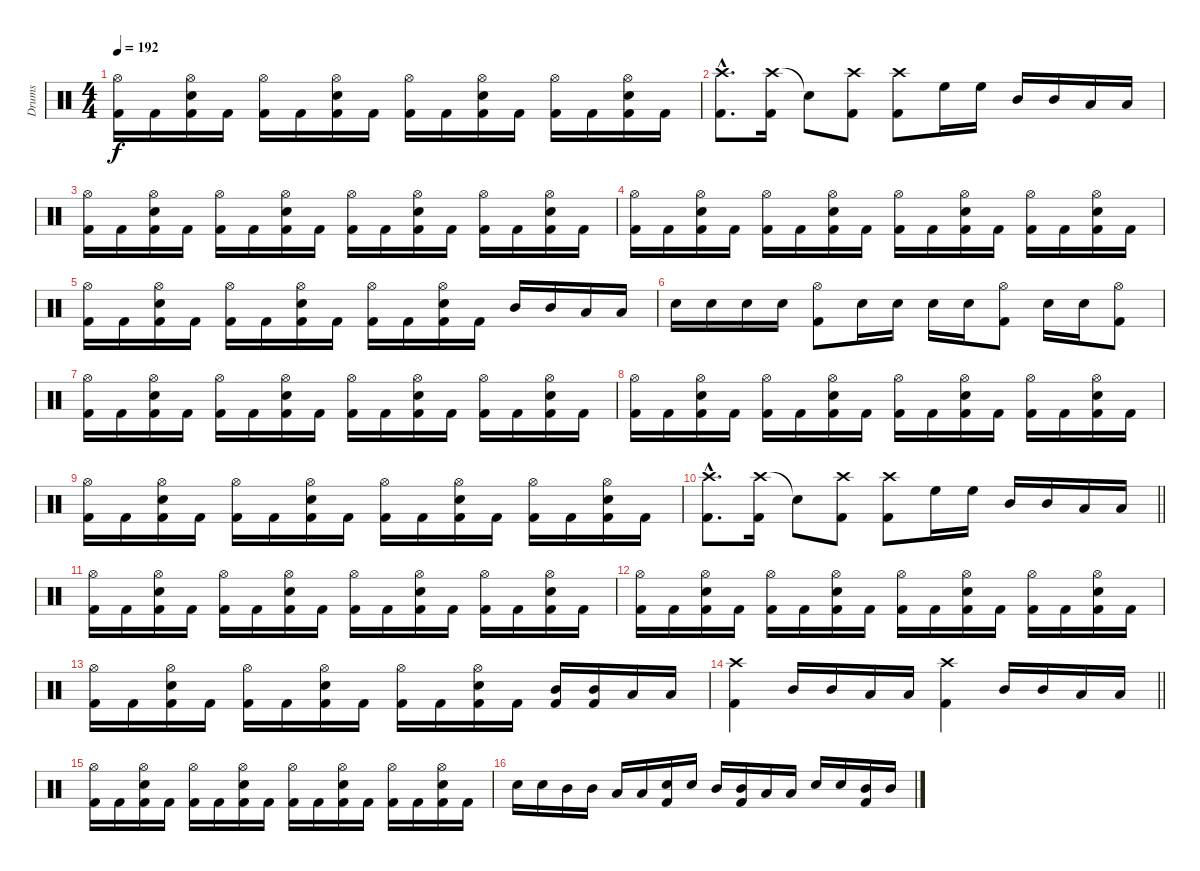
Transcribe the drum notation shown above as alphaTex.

\track ("Drums" "Drums") {instrument percussion}
\staff {score}
\articulation defaults
\ts (4 4)
\tempo 192
\clef neutral
\ks c
("Hi-Hat (open)" "Kick (hit) 2").16{dy f} "Kick (hit) 2".16 ("Hi-Hat (open)" "Snare (hit) 2" "Kick (hit) 2").16 "Kick (hit) 2".16 ("Hi-Hat (open)" "Kick (hit) 2").16 "Kick (hit) 2".16 ("Hi-Hat (open)" "Snare (hit) 2" "Kick (hit) 2").16 "Kick (hit) 2".16 ("Hi-Hat (open)" "Kick (hit) 2").16 "Kick (hit) 2".16 ("Hi-Hat (open)" "Snare (hit) 2" "Kick (hit) 2").16 "Kick (hit) 2".16 ("Hi-Hat (open)" "Kick (hit) 2").16 "Kick (hit) 2".16 ("Hi-Hat (open)" "Snare (hit) 2" "Kick (hit) 2").16 "Kick (hit) 2".16 |
("Crash high (hit)"{hac} "Kick (hit) 2"{hac}).8{d} ("Crash high (hit)" "Kick (hit) 2").16 "Snare (hit)"{t}.8 ("Crash high (hit)" "Kick (hit) 2").8 ("Crash high (hit)" "Kick (hit) 2").8 "High Floor Tom (hit)".16 "High Floor Tom (hit)".16 "Mid Tom (hit)".16 "Mid Tom (hit)".16 "Low Floor Tom (hit)".16 "Low Floor Tom (hit)".16 |
("Hi-Hat (open)" "Kick (hit) 2").16 "Kick (hit) 2".16 ("Hi-Hat (open)" "Snare (hit) 2" "Kick (hit) 2").16 "Kick (hit) 2".16 ("Hi-Hat (open)" "Kick (hit) 2").16 "Kick (hit) 2".16 ("Hi-Hat (open)" "Snare (hit) 2" "Kick (hit) 2").16 "Kick (hit) 2".16 ("Hi-Hat (open)" "Kick (hit) 2").16 "Kick (hit) 2".16 ("Hi-Hat (open)" "Snare (hit) 2" "Kick (hit) 2").16 "Kick (hit) 2".16 ("Hi-Hat (open)" "Kick (hit) 2").16 "Kick (hit) 2".16 ("Hi-Hat (open)" "Snare (hit) 2" "Kick (hit) 2").16 "Kick (hit) 2".16 |
("Hi-Hat (open)" "Kick (hit) 2").16 "Kick (hit) 2".16 ("Hi-Hat (open)" "Snare (hit) 2" "Kick (hit) 2").16 "Kick (hit) 2".16 ("Hi-Hat (open)" "Kick (hit) 2").16 "Kick (hit) 2".16 ("Hi-Hat (open)" "Snare (hit) 2" "Kick (hit) 2").16 "Kick (hit) 2".16 ("Hi-Hat (open)" "Kick (hit) 2").16 "Kick (hit) 2".16 ("Hi-Hat (open)" "Snare (hit) 2" "Kick (hit) 2").16 "Kick (hit) 2".16 ("Hi-Hat (open)" "Kick (hit) 2").16 "Kick (hit) 2".16 ("Hi-Hat (open)" "Snare (hit) 2" "Kick (hit) 2").16 "Kick (hit) 2".16 |
("Hi-Hat (open)" "Kick (hit) 2").16 "Kick (hit) 2".16 ("Hi-Hat (open)" "Snare (hit) 2" "Kick (hit) 2").16 "Kick (hit) 2".16 ("Hi-Hat (open)" "Kick (hit) 2").16 "Kick (hit) 2".16 ("Hi-Hat (open)" "Snare (hit) 2" "Kick (hit) 2").16 "Kick (hit) 2".16 ("Hi-Hat (open)" "Kick (hit) 2").16 "Kick (hit) 2".16 ("Hi-Hat (open)" "Snare (hit) 2" "Kick (hit) 2").16 "Kick (hit) 2".16 "Mid Tom (hit)".16 "Mid Tom (hit)".16 "Low Floor Tom (hit)".16 "Low Floor Tom (hit)".16 |
"Snare (hit) 2".16 "Snare (hit) 2".16 "Snare (hit) 2".16 "Snare (hit) 2".16 ("Hi-Hat (open)" "Kick (hit) 2").8 "Snare (hit) 2".16 "Snare (hit) 2".16 "Snare (hit) 2".16 "Snare (hit) 2".16 ("Hi-Hat (open)" "Kick (hit) 2").8 "Snare (hit) 2".16 "Snare (hit) 2".16 ("Hi-Hat (open)" "Kick (hit) 2").8 |
("Hi-Hat (open)" "Kick (hit) 2").16 "Kick (hit) 2".16 ("Hi-Hat (open)" "Snare (hit) 2" "Kick (hit) 2").16 "Kick (hit) 2".16 ("Hi-Hat (open)" "Kick (hit) 2").16 "Kick (hit) 2".16 ("Hi-Hat (open)" "Snare (hit) 2" "Kick (hit) 2").16 "Kick (hit) 2".16 ("Hi-Hat (open)" "Kick (hit) 2").16 "Kick (hit) 2".16 ("Hi-Hat (open)" "Snare (hit) 2" "Kick (hit) 2").16 "Kick (hit) 2".16 ("Hi-Hat (open)" "Kick (hit) 2").16 "Kick (hit) 2".16 ("Hi-Hat (open)" "Snare (hit) 2" "Kick (hit) 2").16 "Kick (hit) 2".16 |
("Hi-Hat (open)" "Kick (hit) 2").16 "Kick (hit) 2".16 ("Hi-Hat (open)" "Snare (hit) 2" "Kick (hit) 2").16 "Kick (hit) 2".16 ("Hi-Hat (open)" "Kick (hit) 2").16 "Kick (hit) 2".16 ("Hi-Hat (open)" "Snare (hit) 2" "Kick (hit) 2").16 "Kick (hit) 2".16 ("Hi-Hat (open)" "Kick (hit) 2").16 "Kick (hit) 2".16 ("Hi-Hat (open)" "Snare (hit) 2" "Kick (hit) 2").16 "Kick (hit) 2".16 ("Hi-Hat (open)" "Kick (hit) 2").16 "Kick (hit) 2".16 ("Hi-Hat (open)" "Snare (hit) 2" "Kick (hit) 2").16 "Kick (hit) 2".16 |
("Hi-Hat (open)" "Kick (hit) 2").16 "Kick (hit) 2".16 ("Hi-Hat (open)" "Snare (hit) 2" "Kick (hit) 2").16 "Kick (hit) 2".16 ("Hi-Hat (open)" "Kick (hit) 2").16 "Kick (hit) 2".16 ("Hi-Hat (open)" "Snare (hit) 2" "Kick (hit) 2").16 "Kick (hit) 2".16 ("Hi-Hat (open)" "Kick (hit) 2").16 "Kick (hit) 2".16 ("Hi-Hat (open)" "Snare (hit) 2" "Kick (hit) 2").16 "Kick (hit) 2".16 ("Hi-Hat (open)" "Kick (hit) 2").16 "Kick (hit) 2".16 ("Hi-Hat (open)" "Snare (hit) 2" "Kick (hit) 2").16 "Kick (hit) 2".16 |
\barLineRight lightlight
("Crash high (hit)"{hac} "Kick (hit) 2"{hac}).8{d} ("Crash high (hit)" "Kick (hit) 2").16 "Snare (hit)"{t}.8 ("Crash high (hit)" "Kick (hit) 2").8 ("Crash high (hit)" "Kick (hit) 2").8 "High Floor Tom (hit)".16 "High Floor Tom (hit)".16 "Mid Tom (hit)".16 "Mid Tom (hit)".16 "Low Floor Tom (hit)".16 "Low Floor Tom (hit)".16 |
("Hi-Hat (open)" "Kick (hit) 2").16 "Kick (hit) 2".16 ("Hi-Hat (open)" "Snare (hit) 2" "Kick (hit) 2").16 "Kick (hit) 2".16 ("Hi-Hat (open)" "Kick (hit) 2").16 "Kick (hit) 2".16 ("Hi-Hat (open)" "Snare (hit) 2" "Kick (hit) 2").16 "Kick (hit) 2".16 ("Hi-Hat (open)" "Kick (hit) 2").16 "Kick (hit) 2".16 ("Hi-Hat (open)" "Snare (hit) 2" "Kick (hit) 2").16 "Kick (hit) 2".16 ("Hi-Hat (open)" "Kick (hit) 2").16 "Kick (hit) 2".16 ("Hi-Hat (open)" "Snare (hit) 2" "Kick (hit) 2").16 "Kick (hit) 2".16 |
("Hi-Hat (open)" "Kick (hit) 2").16 "Kick (hit) 2".16 ("Hi-Hat (open)" "Snare (hit) 2" "Kick (hit) 2").16 "Kick (hit) 2".16 ("Hi-Hat (open)" "Kick (hit) 2").16 "Kick (hit) 2".16 ("Hi-Hat (open)" "Snare (hit) 2" "Kick (hit) 2").16 "Kick (hit) 2".16 ("Hi-Hat (open)" "Kick (hit) 2").16 "Kick (hit) 2".16 ("Hi-Hat (open)" "Snare (hit) 2" "Kick (hit) 2").16 "Kick (hit) 2".16 ("Hi-Hat (open)" "Kick (hit) 2").16 "Kick (hit) 2".16 ("Hi-Hat (open)" "Snare (hit) 2" "Kick (hit) 2").16 "Kick (hit) 2".16 |
("Hi-Hat (open)" "Kick (hit) 2").16 "Kick (hit) 2".16 ("Hi-Hat (open)" "Snare (hit) 2" "Kick (hit) 2").16 "Kick (hit) 2".16 ("Hi-Hat (open)" "Kick (hit) 2").16 "Kick (hit) 2".16 ("Hi-Hat (open)" "Snare (hit) 2" "Kick (hit) 2").16 "Kick (hit) 2".16 ("Hi-Hat (open)" "Kick (hit) 2").16 "Kick (hit) 2".16 ("Hi-Hat (open)" "Snare (hit) 2" "Kick (hit) 2").16 "Kick (hit) 2".16 ("Mid Tom (hit)" "Kick (hit) 2").16 ("Mid Tom (hit)" "Kick (hit) 2").16 "Low Floor Tom (hit)".16 "Low Floor Tom (hit)".16 |
\barLineRight lightlight
("Crash high (hit)" "Kick (hit) 2").4 "Mid Tom (hit)".16 "Mid Tom (hit)".16 "Low Floor Tom (hit)".16 "Low Floor Tom (hit)".16 ("Crash high (hit)" "Kick (hit) 2").4 "Mid Tom (hit)".16 "Mid Tom (hit)".16 "Low Floor Tom (hit)".16 "Low Floor Tom (hit)".16 |
("Hi-Hat (open)" "Kick (hit) 2").16 "Kick (hit) 2".16 ("Hi-Hat (open)" "Snare (hit) 2" "Kick (hit) 2").16 "Kick (hit) 2".16 ("Hi-Hat (open)" "Kick (hit) 2").16 "Kick (hit) 2".16 ("Hi-Hat (open)" "Snare (hit) 2" "Kick (hit) 2").16 "Kick (hit) 2".16 ("Hi-Hat (open)" "Kick (hit) 2").16 "Kick (hit) 2".16 ("Hi-Hat (open)" "Snare (hit) 2" "Kick (hit) 2").16 "Kick (hit) 2".16 ("Hi-Hat (open)" "Kick (hit) 2").16 "Kick (hit) 2".16 ("Hi-Hat (open)" "Snare (hit) 2" "Kick (hit) 2").16 "Kick (hit) 2".16 |
"Snare (hit) 2".16 "Snare (hit) 2".16 "Mid Tom (hit)".16 "Mid Tom (hit)".16 "Low Floor Tom (hit)".16 "Low Floor Tom (hit)".16 ("Snare (hit) 2" "Kick (hit) 2").16 "Snare (hit) 2".16 "Mid Tom (hit)".16 ("Mid Tom (hit)" "Kick (hit) 2").16 "Low Floor Tom (hit)".16 "Low Floor Tom (hit)".16 "Snare (hit) 2".16 "Snare (hit) 2".16 ("Mid Tom (hit)" "Kick (hit) 2").16 "Mid Tom (hit)".16
